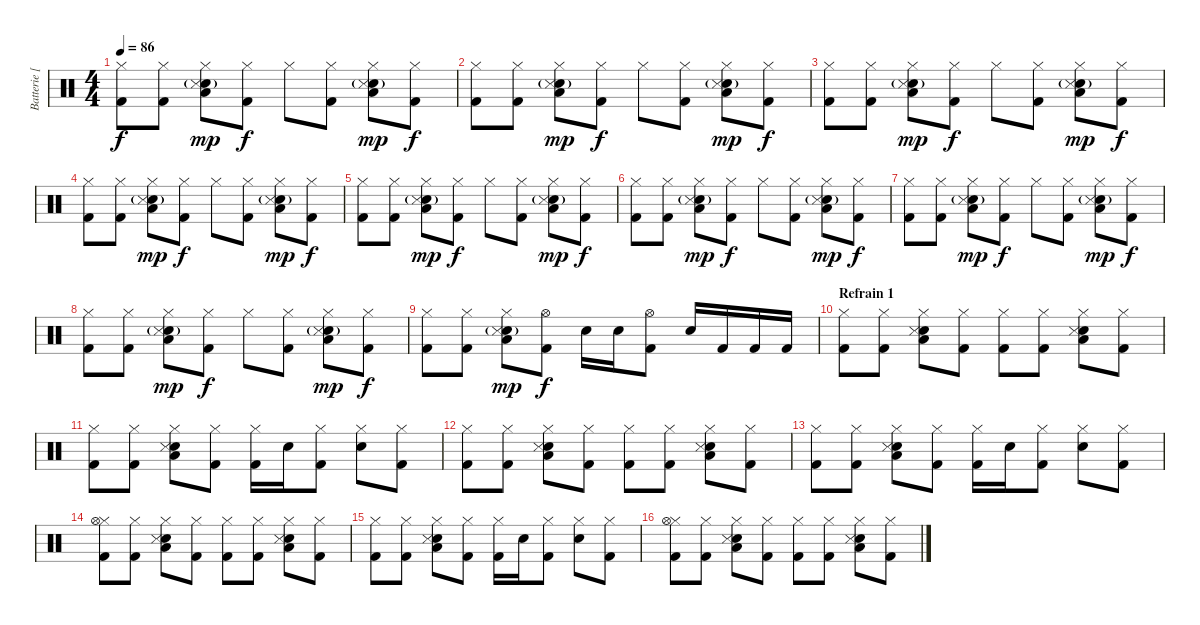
\track ("Batterie [Dominic Howard]" "Batterie [") {instrument percussion}
\staff {score}
\articulation defaults
\ts (4 4)
\tempo 86
\clef neutral
\ks c
("Hi-Hat (closed)" "Kick (hit) 2").8{dy f} ("Hi-Hat (closed)" "Kick (hit) 2").8 ("Hi-Hat (closed)" "Low Tom (hit)" "Electric Snare (hit)"{g} "Snare (side stick) 3").8{dy mp} ("Hi-Hat (closed)" "Kick (hit) 2").8{dy f} "Hi-Hat (closed)".8 ("Hi-Hat (closed)" "Kick (hit) 2").8 ("Hi-Hat (closed)" "Low Tom (hit)" "Electric Snare (hit)"{g} "Snare (side stick) 3").8{dy mp} ("Hi-Hat (closed)" "Kick (hit) 2").8{dy f} |
("Hi-Hat (closed)" "Kick (hit) 2").8 ("Hi-Hat (closed)" "Kick (hit) 2").8 ("Hi-Hat (closed)" "Low Tom (hit)" "Electric Snare (hit)"{g} "Snare (side stick) 3").8{dy mp} ("Hi-Hat (closed)" "Kick (hit) 2").8{dy f} "Hi-Hat (closed)".8 ("Hi-Hat (closed)" "Kick (hit) 2").8 ("Hi-Hat (closed)" "Low Tom (hit)" "Electric Snare (hit)"{g} "Snare (side stick) 3").8{dy mp} ("Hi-Hat (closed)" "Kick (hit) 2").8{dy f} |
("Hi-Hat (closed)" "Kick (hit) 2").8 ("Hi-Hat (closed)" "Kick (hit) 2").8 ("Hi-Hat (closed)" "Low Tom (hit)" "Electric Snare (hit)"{g} "Snare (side stick) 3").8{dy mp} ("Hi-Hat (closed)" "Kick (hit) 2").8{dy f} "Hi-Hat (closed)".8 ("Hi-Hat (closed)" "Kick (hit) 2").8 ("Hi-Hat (closed)" "Low Tom (hit)" "Electric Snare (hit)"{g} "Snare (side stick) 3").8{dy mp} ("Hi-Hat (closed)" "Kick (hit) 2").8{dy f} |
("Hi-Hat (closed)" "Kick (hit) 2").8 ("Hi-Hat (closed)" "Kick (hit) 2").8 ("Hi-Hat (closed)" "Low Tom (hit)" "Electric Snare (hit)"{g} "Snare (side stick) 3").8{dy mp} ("Hi-Hat (closed)" "Kick (hit) 2").8{dy f} "Hi-Hat (closed)".8 ("Hi-Hat (closed)" "Kick (hit) 2").8 ("Hi-Hat (closed)" "Low Tom (hit)" "Electric Snare (hit)"{g} "Snare (side stick) 3").8{dy mp} ("Hi-Hat (closed)" "Kick (hit) 2").8{dy f} |
("Hi-Hat (closed)" "Kick (hit) 2").8 ("Hi-Hat (closed)" "Kick (hit) 2").8 ("Hi-Hat (closed)" "Low Tom (hit)" "Electric Snare (hit)"{g} "Snare (side stick) 3").8{dy mp} ("Hi-Hat (closed)" "Kick (hit) 2").8{dy f} "Hi-Hat (closed)".8 ("Hi-Hat (closed)" "Kick (hit) 2").8 ("Hi-Hat (closed)" "Low Tom (hit)" "Electric Snare (hit)"{g} "Snare (side stick) 3").8{dy mp} ("Hi-Hat (closed)" "Kick (hit) 2").8{dy f} |
("Hi-Hat (closed)" "Kick (hit) 2").8 ("Hi-Hat (closed)" "Kick (hit) 2").8 ("Hi-Hat (closed)" "Low Tom (hit)" "Electric Snare (hit)"{g} "Snare (side stick) 3").8{dy mp} ("Hi-Hat (closed)" "Kick (hit) 2").8{dy f} "Hi-Hat (closed)".8 ("Hi-Hat (closed)" "Kick (hit) 2").8 ("Hi-Hat (closed)" "Low Tom (hit)" "Electric Snare (hit)"{g} "Snare (side stick) 3").8{dy mp} ("Hi-Hat (closed)" "Kick (hit) 2").8{dy f} |
("Hi-Hat (closed)" "Kick (hit) 2").8 ("Hi-Hat (closed)" "Kick (hit) 2").8 ("Hi-Hat (closed)" "Low Tom (hit)" "Electric Snare (hit)"{g} "Snare (side stick) 3").8{dy mp} ("Hi-Hat (closed)" "Kick (hit) 2").8{dy f} "Hi-Hat (closed)".8 ("Hi-Hat (closed)" "Kick (hit) 2").8 ("Hi-Hat (closed)" "Low Tom (hit)" "Electric Snare (hit)"{g} "Snare (side stick) 3").8{dy mp} ("Hi-Hat (closed)" "Kick (hit) 2").8{dy f} |
("Hi-Hat (closed)" "Kick (hit) 2").8 ("Hi-Hat (closed)" "Kick (hit) 2").8 ("Hi-Hat (closed)" "Low Tom (hit)" "Electric Snare (hit)"{g} "Snare (side stick) 3").8{dy mp} ("Hi-Hat (closed)" "Kick (hit) 2").8{dy f} "Hi-Hat (closed)".8 ("Hi-Hat (closed)" "Kick (hit) 2").8 ("Hi-Hat (closed)" "Low Tom (hit)" "Electric Snare (hit)"{g} "Snare (side stick) 3").8{dy mp} ("Hi-Hat (closed)" "Kick (hit) 2").8{dy f} |
("Hi-Hat (closed)" "Kick (hit) 2").8 ("Hi-Hat (closed)" "Kick (hit) 2").8 ("Hi-Hat (closed)" "Low Tom (hit)" "Electric Snare (hit)"{g} "Snare (side stick) 3").8{dy mp} ("Hi-Hat (open)" "Kick (hit) 2").8{dy f} "Electric Snare (hit)".16 "Electric Snare (hit)".16 ("Hi-Hat (open)" "Kick (hit) 2").8 "Electric Snare (hit)".16 "Kick (hit) 2".16 "Kick (hit) 2".16 "Kick (hit) 2".16 |
\section ("" "Refrain 1")
("Hi-Hat (closed)" "Kick (hit) 2").8 ("Hi-Hat (closed)" "Kick (hit) 2").8 ("Hi-Hat (closed)" "Low Tom (hit)" "Electric Snare (hit)" "Snare (side stick) 3").8 ("Hi-Hat (closed)" "Kick (hit) 2").8 ("Hi-Hat (closed)" "Kick (hit) 2").8 ("Hi-Hat (closed)" "Kick (hit) 2").8 ("Hi-Hat (closed)" "Low Tom (hit)" "Electric Snare (hit)" "Snare (side stick) 3").8 ("Hi-Hat (closed)" "Kick (hit) 2").8 |
("Hi-Hat (closed)" "Kick (hit) 2").8 ("Hi-Hat (closed)" "Kick (hit) 2").8 ("Hi-Hat (closed)" "Low Tom (hit)" "Electric Snare (hit)" "Snare (side stick) 3").8 ("Hi-Hat (closed)" "Kick (hit) 2").8 ("Hi-Hat (closed)" "Kick (hit) 2").16 "Electric Snare (hit)".16 ("Hi-Hat (closed)" "Kick (hit) 2").8 ("Hi-Hat (closed)" "Electric Snare (hit)").8 ("Hi-Hat (closed)" "Kick (hit) 2").8 |
("Hi-Hat (closed)" "Kick (hit) 2").8 ("Hi-Hat (closed)" "Kick (hit) 2").8 ("Hi-Hat (closed)" "Low Tom (hit)" "Electric Snare (hit)" "Snare (side stick) 3").8 ("Hi-Hat (closed)" "Kick (hit) 2").8 ("Hi-Hat (closed)" "Kick (hit) 2").8 ("Hi-Hat (closed)" "Kick (hit) 2").8 ("Hi-Hat (closed)" "Low Tom (hit)" "Electric Snare (hit)" "Snare (side stick) 3").8 ("Hi-Hat (closed)" "Kick (hit) 2").8 |
("Hi-Hat (closed)" "Kick (hit) 2").8 ("Hi-Hat (closed)" "Kick (hit) 2").8 ("Hi-Hat (closed)" "Low Tom (hit)" "Electric Snare (hit)" "Snare (side stick) 3").8 ("Hi-Hat (closed)" "Kick (hit) 2").8 ("Hi-Hat (closed)" "Kick (hit) 2").16 "Electric Snare (hit)".16 ("Hi-Hat (closed)" "Kick (hit) 2").8 ("Hi-Hat (closed)" "Electric Snare (hit)").8 ("Hi-Hat (closed)" "Kick (hit) 2").8 |
("Hi-Hat (closed)" "Hi-Hat (open)" "Kick (hit) 2").8 ("Hi-Hat (closed)" "Kick (hit) 2").8 ("Hi-Hat (closed)" "Low Tom (hit)" "Electric Snare (hit)" "Snare (side stick) 3").8 ("Hi-Hat (closed)" "Kick (hit) 2").8 ("Hi-Hat (closed)" "Kick (hit) 2").8 ("Hi-Hat (closed)" "Kick (hit) 2").8 ("Hi-Hat (closed)" "Low Tom (hit)" "Electric Snare (hit)" "Snare (side stick) 3").8 ("Hi-Hat (closed)" "Kick (hit) 2").8 |
("Hi-Hat (closed)" "Kick (hit) 2").8 ("Hi-Hat (closed)" "Kick (hit) 2").8 ("Hi-Hat (closed)" "Low Tom (hit)" "Electric Snare (hit)" "Snare (side stick) 3").8 ("Hi-Hat (closed)" "Kick (hit) 2").8 ("Hi-Hat (closed)" "Kick (hit) 2").16 "Electric Snare (hit)".16 ("Hi-Hat (closed)" "Kick (hit) 2").8 ("Hi-Hat (closed)" "Electric Snare (hit)").8 ("Hi-Hat (closed)" "Kick (hit) 2").8 |
("Hi-Hat (closed)" "Hi-Hat (open)" "Kick (hit) 2").8 ("Hi-Hat (closed)" "Kick (hit) 2").8 ("Hi-Hat (closed)" "Low Tom (hit)" "Electric Snare (hit)" "Snare (side stick) 3").8 ("Hi-Hat (closed)" "Kick (hit) 2").8 ("Hi-Hat (closed)" "Kick (hit) 2").8 ("Hi-Hat (closed)" "Kick (hit) 2").8 ("Hi-Hat (closed)" "Low Tom (hit)" "Electric Snare (hit)" "Snare (side stick) 3").8 ("Hi-Hat (closed)" "Kick (hit) 2").8
